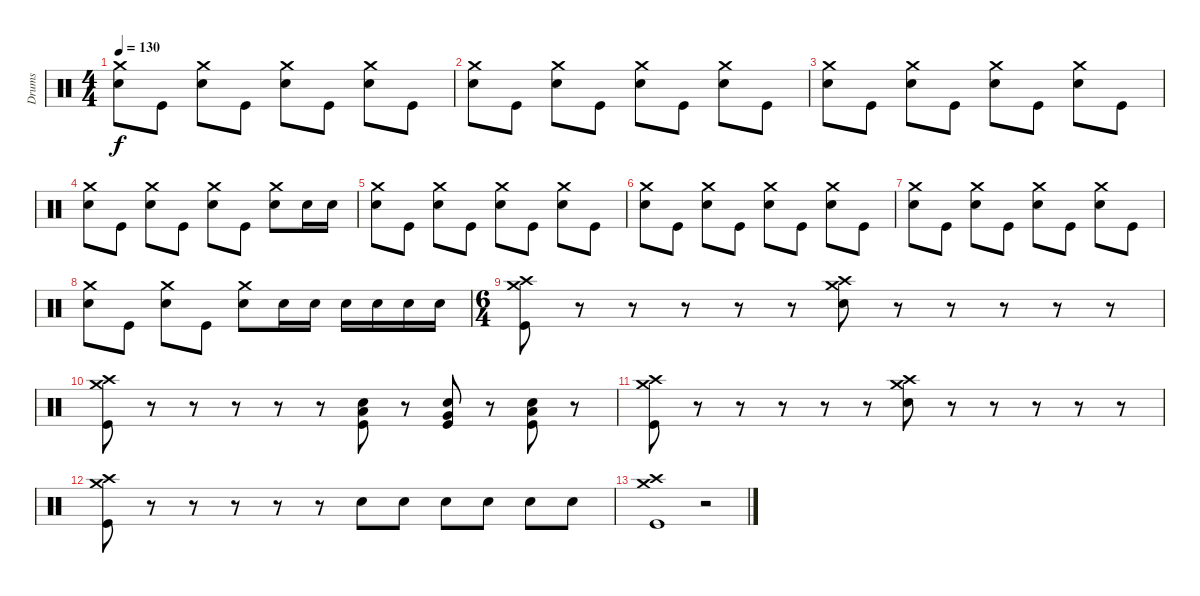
\track ("Drums" "Drums") {instrument percussion}
\staff {score}
\articulation defaults
\ts (4 4)
\tempo 130
\clef neutral
\ks c
("Crash medium (hit)" "Snare (hit) 2").8{dy f} "Kick (hit)".8 ("Crash medium (hit)" "Snare (hit) 2").8 "Kick (hit)".8 ("Crash medium (hit)" "Snare (hit) 2").8 "Kick (hit)".8 ("Crash medium (hit)" "Snare (hit) 2").8 "Kick (hit)".8 |
("Crash medium (hit)" "Snare (hit) 2").8 "Kick (hit)".8 ("Crash medium (hit)" "Snare (hit) 2").8 "Kick (hit)".8 ("Crash medium (hit)" "Snare (hit) 2").8 "Kick (hit)".8 ("Crash medium (hit)" "Snare (hit) 2").8 "Kick (hit)".8 |
("Crash medium (hit)" "Snare (hit) 2").8 "Kick (hit)".8 ("Crash medium (hit)" "Snare (hit) 2").8 "Kick (hit)".8 ("Crash medium (hit)" "Snare (hit) 2").8 "Kick (hit)".8 ("Crash medium (hit)" "Snare (hit) 2").8 "Kick (hit)".8 |
("Crash medium (hit)" "Snare (hit) 2").8 "Kick (hit)".8 ("Crash medium (hit)" "Snare (hit) 2").8 "Kick (hit)".8 ("Crash medium (hit)" "Snare (hit) 2").8 "Kick (hit)".8 ("Crash medium (hit)" "Snare (hit) 2").8 "Snare (hit) 2".16 "Snare (hit) 2".16 |
("Crash medium (hit)" "Snare (hit) 2").8 "Kick (hit)".8 ("Crash medium (hit)" "Snare (hit) 2").8 "Kick (hit)".8 ("Crash medium (hit)" "Snare (hit) 2").8 "Kick (hit)".8 ("Crash medium (hit)" "Snare (hit) 2").8 "Kick (hit)".8 |
("Crash medium (hit)" "Snare (hit) 2").8 "Kick (hit)".8 ("Crash medium (hit)" "Snare (hit) 2").8 "Kick (hit)".8 ("Crash medium (hit)" "Snare (hit) 2").8 "Kick (hit)".8 ("Crash medium (hit)" "Snare (hit) 2").8 "Kick (hit)".8 |
("Crash medium (hit)" "Snare (hit) 2").8 "Kick (hit)".8 ("Crash medium (hit)" "Snare (hit) 2").8 "Kick (hit)".8 ("Crash medium (hit)" "Snare (hit) 2").8 "Kick (hit)".8 ("Crash medium (hit)" "Snare (hit) 2").8 "Kick (hit)".8 |
("Crash medium (hit)" "Snare (hit) 2").8 "Kick (hit)".8 ("Crash medium (hit)" "Snare (hit) 2").8 "Kick (hit)".8 ("Crash medium (hit)" "Snare (hit) 2").8 "Snare (hit) 2".16 "Snare (hit) 2".16 "Snare (hit) 2".16 "Snare (hit) 2".16 "Snare (hit) 2".16 "Snare (hit) 2".16 |
\ts (6 4)
("Crash high (hit)" "Crash medium (hit)" "Kick (hit)").8 r.8 r.8 r.8 r.8 r.8 ("Crash high (hit)" "Crash medium (hit)" "Snare (hit) 2").8 r.8 r.8 r.8 r.8 r.8 |
("Crash high (hit)" "Crash medium (hit)" "Kick (hit)").8 r.8 r.8 r.8 r.8 r.8 ("Snare (hit) 2" "Low Tom (hit)" "Kick (hit)").8 r.8 ("Snare (hit) 2" "Very Low Tom (hit)" "Kick (hit)").8 r.8 ("Snare (hit) 2" "Low Floor Tom (hit)" "Kick (hit)").8 r.8 |
("Crash high (hit)" "Crash medium (hit)" "Kick (hit)").8 r.8 r.8 r.8 r.8 r.8 ("Crash high (hit)" "Crash medium (hit)" "Snare (hit) 2").8 r.8 r.8 r.8 r.8 r.8 |
("Crash high (hit)" "Crash medium (hit)" "Kick (hit)").8 r.8 r.8 r.8 r.8 r.8 "Snare (hit) 2".8 "Snare (hit) 2".8 "Snare (hit) 2".8 "Snare (hit) 2".8 "Snare (hit) 2".8 "Snare (hit) 2".8 |
("Crash high (hit)" "Crash medium (hit)" "Kick (hit)").1 r.2
